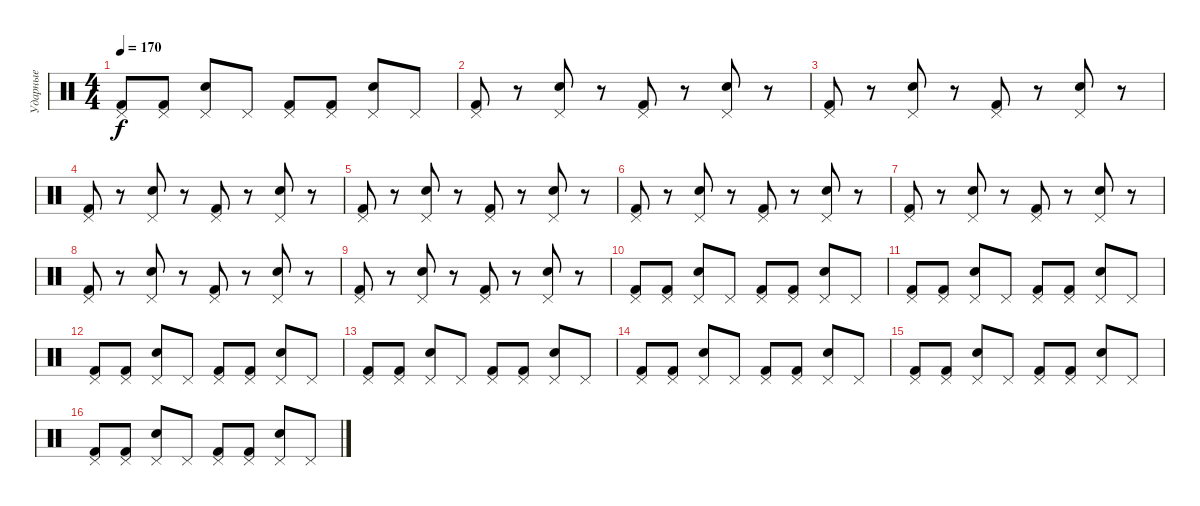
\track ("Ударные" "Ударные") {instrument percussion}
\staff {score}
\articulation defaults
\ts (4 4)
\tempo 170
\clef neutral
\ks c
("Pedal Hi-Hat (hit)" "Kick (hit) 2").8{dy f} ("Kick (hit) 2" "Pedal Hi-Hat (hit)").8 ("Pedal Hi-Hat (hit)" "Electric Snare (hit)").8 "Pedal Hi-Hat (hit)".8 ("Kick (hit) 2" "Pedal Hi-Hat (hit)").8 ("Pedal Hi-Hat (hit)" "Kick (hit) 2").8 ("Pedal Hi-Hat (hit)" "Electric Snare (hit)").8 "Pedal Hi-Hat (hit)".8 |
("Kick (hit) 2" "Pedal Hi-Hat (hit)").8 r.8 ("Pedal Hi-Hat (hit)" "Snare (hit) 2").8 r.8 ("Pedal Hi-Hat (hit)" "Kick (hit) 2").8 r.8 ("Snare (hit) 2" "Pedal Hi-Hat (hit)").8 r.8 |
("Kick (hit) 2" "Pedal Hi-Hat (hit)").8 r.8 ("Snare (hit) 2" "Pedal Hi-Hat (hit)").8 r.8 ("Pedal Hi-Hat (hit)" "Kick (hit) 2").8 r.8 ("Snare (hit) 2" "Pedal Hi-Hat (hit)").8 r.8 |
("Pedal Hi-Hat (hit)" "Kick (hit) 2").8 r.8 ("Pedal Hi-Hat (hit)" "Snare (hit) 2").8 r.8 ("Pedal Hi-Hat (hit)" "Kick (hit) 2").8 r.8 ("Pedal Hi-Hat (hit)" "Snare (hit) 2").8 r.8 |
("Kick (hit) 2" "Pedal Hi-Hat (hit)").8 r.8 ("Snare (hit) 2" "Pedal Hi-Hat (hit)").8 r.8 ("Kick (hit) 2" "Pedal Hi-Hat (hit)").8 r.8 ("Snare (hit) 2" "Pedal Hi-Hat (hit)").8 r.8 |
("Pedal Hi-Hat (hit)" "Kick (hit) 2").8 r.8 ("Snare (hit) 2" "Pedal Hi-Hat (hit)").8 r.8 ("Pedal Hi-Hat (hit)" "Kick (hit) 2").8 r.8 ("Pedal Hi-Hat (hit)" "Snare (hit) 2").8 r.8 |
("Pedal Hi-Hat (hit)" "Kick (hit) 2").8 r.8 ("Snare (hit) 2" "Pedal Hi-Hat (hit)").8 r.8 ("Kick (hit) 2" "Pedal Hi-Hat (hit)").8 r.8 ("Pedal Hi-Hat (hit)" "Snare (hit) 2").8 r.8 |
("Pedal Hi-Hat (hit)" "Kick (hit) 2").8 r.8 ("Pedal Hi-Hat (hit)" "Snare (hit) 2").8 r.8 ("Kick (hit) 2" "Pedal Hi-Hat (hit)").8 r.8 ("Pedal Hi-Hat (hit)" "Snare (hit) 2").8 r.8 |
("Kick (hit) 2" "Pedal Hi-Hat (hit)").8 r.8 ("Pedal Hi-Hat (hit)" "Snare (hit) 2").8 r.8 ("Kick (hit) 2" "Pedal Hi-Hat (hit)").8 r.8 ("Snare (hit) 2" "Pedal Hi-Hat (hit)").8 r.8 |
("Pedal Hi-Hat (hit)" "Kick (hit) 2").8 ("Pedal Hi-Hat (hit)" "Kick (hit) 2").8 ("Pedal Hi-Hat (hit)" "Electric Snare (hit)").8 "Pedal Hi-Hat (hit)".8 ("Pedal Hi-Hat (hit)" "Kick (hit) 2").8 ("Pedal Hi-Hat (hit)" "Kick (hit) 2").8 ("Pedal Hi-Hat (hit)" "Electric Snare (hit)").8 "Pedal Hi-Hat (hit)".8 |
("Pedal Hi-Hat (hit)" "Kick (hit) 2").8 ("Pedal Hi-Hat (hit)" "Kick (hit) 2").8 ("Pedal Hi-Hat (hit)" "Electric Snare (hit)").8 "Pedal Hi-Hat (hit)".8 ("Pedal Hi-Hat (hit)" "Kick (hit) 2").8 ("Pedal Hi-Hat (hit)" "Kick (hit) 2").8 ("Pedal Hi-Hat (hit)" "Electric Snare (hit)").8 "Pedal Hi-Hat (hit)".8 |
("Kick (hit) 2" "Pedal Hi-Hat (hit)").8 ("Pedal Hi-Hat (hit)" "Kick (hit) 2").8 ("Pedal Hi-Hat (hit)" "Electric Snare (hit)").8 "Pedal Hi-Hat (hit)".8 ("Kick (hit) 2" "Pedal Hi-Hat (hit)").8 ("Pedal Hi-Hat (hit)" "Kick (hit) 2").8 ("Electric Snare (hit)" "Pedal Hi-Hat (hit)").8 "Pedal Hi-Hat (hit)".8 |
("Pedal Hi-Hat (hit)" "Kick (hit) 2").8 ("Kick (hit) 2" "Pedal Hi-Hat (hit)").8 ("Pedal Hi-Hat (hit)" "Electric Snare (hit)").8 "Pedal Hi-Hat (hit)".8 ("Kick (hit) 2" "Pedal Hi-Hat (hit)").8 ("Pedal Hi-Hat (hit)" "Kick (hit) 2").8 ("Pedal Hi-Hat (hit)" "Electric Snare (hit)").8 "Pedal Hi-Hat (hit)".8 |
("Kick (hit) 2" "Pedal Hi-Hat (hit)").8 ("Pedal Hi-Hat (hit)" "Kick (hit) 2").8 ("Electric Snare (hit)" "Pedal Hi-Hat (hit)").8 "Pedal Hi-Hat (hit)".8 ("Pedal Hi-Hat (hit)" "Kick (hit) 2").8 ("Kick (hit) 2" "Pedal Hi-Hat (hit)").8 ("Pedal Hi-Hat (hit)" "Electric Snare (hit)").8 "Pedal Hi-Hat (hit)".8 |
("Kick (hit) 2" "Pedal Hi-Hat (hit)").8 ("Pedal Hi-Hat (hit)" "Kick (hit) 2").8 ("Pedal Hi-Hat (hit)" "Electric Snare (hit)").8 "Pedal Hi-Hat (hit)".8 ("Kick (hit) 2" "Pedal Hi-Hat (hit)").8 ("Pedal Hi-Hat (hit)" "Kick (hit) 2").8 ("Electric Snare (hit)" "Pedal Hi-Hat (hit)").8 "Pedal Hi-Hat (hit)".8 |
("Pedal Hi-Hat (hit)" "Kick (hit) 2").8 ("Kick (hit) 2" "Pedal Hi-Hat (hit)").8 ("Pedal Hi-Hat (hit)" "Electric Snare (hit)").8 "Pedal Hi-Hat (hit)".8 ("Kick (hit) 2" "Pedal Hi-Hat (hit)").8 ("Pedal Hi-Hat (hit)" "Kick (hit) 2").8 ("Pedal Hi-Hat (hit)" "Electric Snare (hit)").8 "Pedal Hi-Hat (hit)".8
